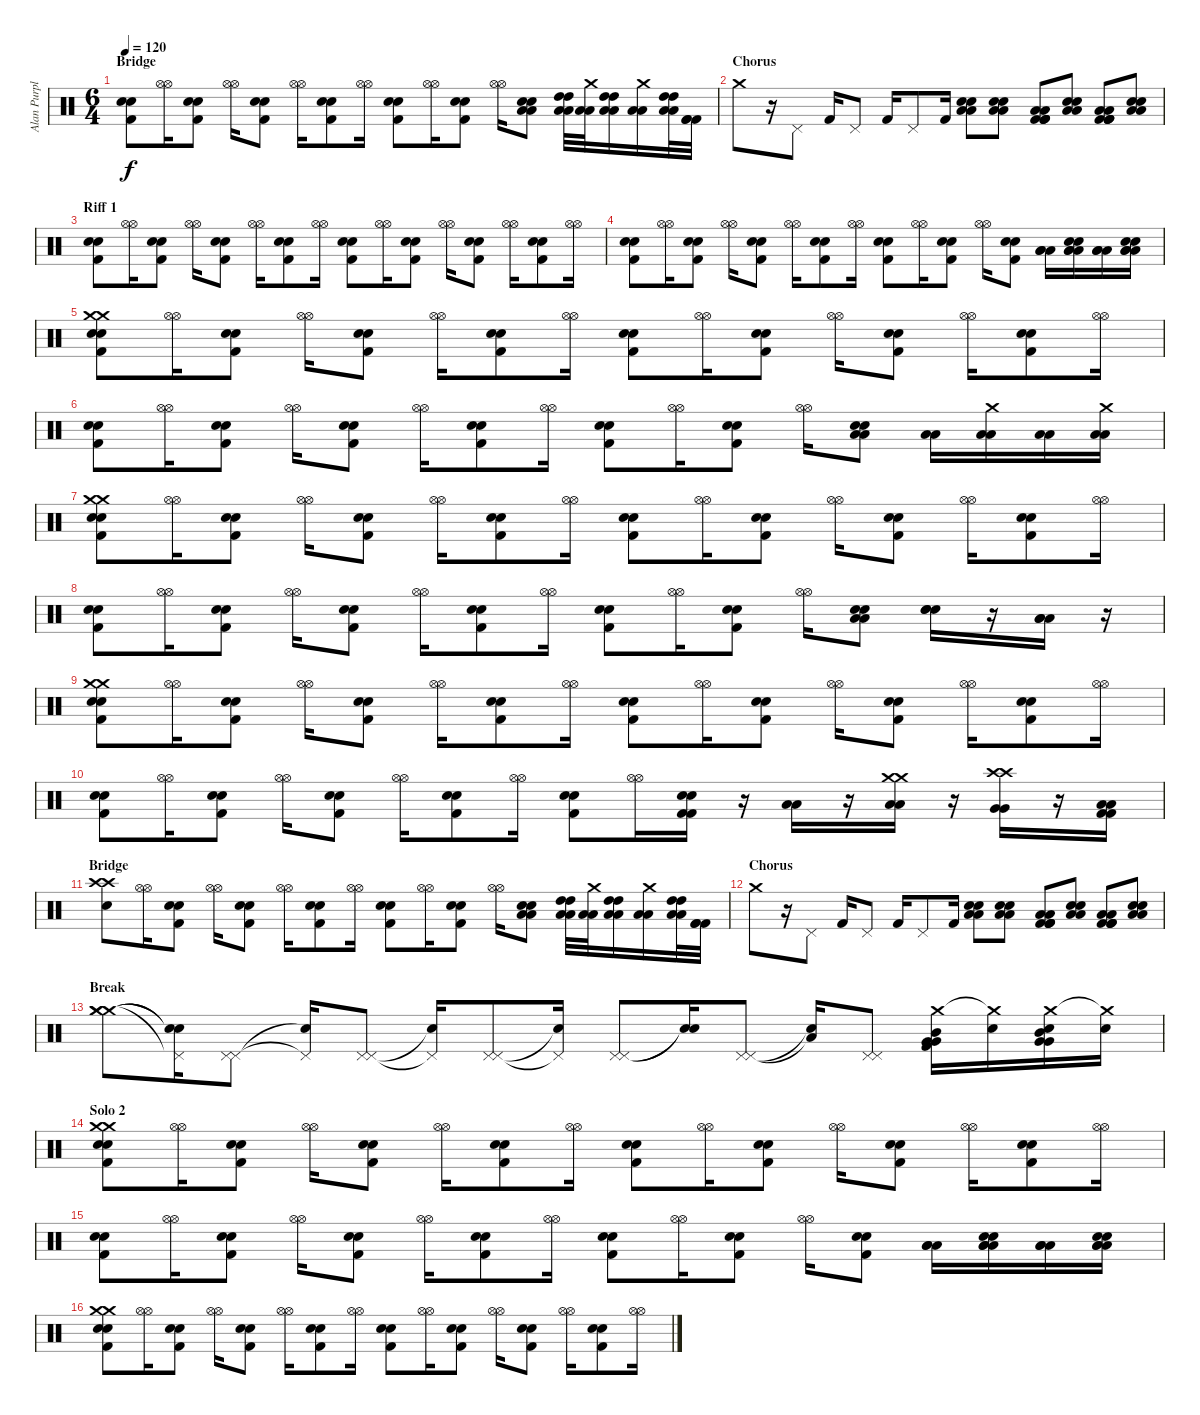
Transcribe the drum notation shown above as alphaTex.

\track ("Alan Purple" "Alan Purpl") {instrument percussion}
\staff {score}
\articulation defaults
\ts (6 4)
\section ("" "Bridge")
\tempo 120
\clef neutral
\ks c
("Electric Snare (hit)" "Kick (hit) 2" "Electric Snare (hit)").8{dy f} ("Hi-Hat (open)" "Hi-Hat (open)").16 ("Electric Snare (hit)" "Kick (hit) 2" "Electric Snare (hit)").8 ("Hi-Hat (open)" "Hi-Hat (open)").16 ("Electric Snare (hit)" "Kick (hit) 2" "Electric Snare (hit)").8 ("Hi-Hat (open)" "Hi-Hat (open)").16 ("Electric Snare (hit)" "Kick (hit) 2" "Electric Snare (hit)").8 ("Hi-Hat (open)" "Hi-Hat (open)").16 ("Electric Snare (hit)" "Kick (hit) 2" "Electric Snare (hit)").8 ("Hi-Hat (open)" "Hi-Hat (open)").16 ("Electric Snare (hit)" "Kick (hit) 2" "Electric Snare (hit)").8 ("Hi-Hat (open)" "Hi-Hat (open)").16 ("Electric Snare (hit)" "Low Tom (hit)" "Low Tom (hit)" "Electric Snare (hit)").8 ("High Tom (hit)" "Low Tom (hit)" "Low Tom (hit)" "High Tom (hit)").32 ("Crash medium (hit)" "Low Tom (hit)" "Low Tom (hit)").32 ("High Tom (hit)" "Low Tom (hit)" "Low Tom (hit)" "High Tom (hit)").16 ("Crash medium (hit)" "Low Tom (hit)" "Low Tom (hit)").16 ("High Tom (hit)" "Low Tom (hit)" "Low Tom (hit)" "High Tom (hit)").32 ("Kick (hit) 2" "Kick (hit) 2" "Kick (hit) 2").32 |
\section ("" "Chorus")
"Crash medium (hit)".8 r.16 "Pedal Hi-Hat (hit)".8 "Kick (hit) 2".16 "Pedal Hi-Hat (hit)".8 "Kick (hit) 2".16 "Pedal Hi-Hat (hit)".8 "Kick (hit) 2".16 ("Electric Snare (hit)" "Low Tom (hit)" "Low Tom (hit)" "Electric Snare (hit)").8 ("Electric Snare (hit)" "Low Tom (hit)" "Low Tom (hit)" "Electric Snare (hit)").8 ("Kick (hit) 2" "Kick (hit) 2" "Low Tom (hit)" "Low Tom (hit)" "Kick (hit) 2" "Kick (hit) 2").8 ("Electric Snare (hit)" "Low Tom (hit)" "Low Tom (hit)" "Electric Snare (hit)").8 ("Kick (hit) 2" "Kick (hit) 2" "Low Tom (hit)" "Low Tom (hit)" "Kick (hit) 2" "Kick (hit) 2").8 ("Electric Snare (hit)" "Low Tom (hit)" "Low Tom (hit)" "Electric Snare (hit)").8 |
\section ("" "Riff 1")
("Electric Snare (hit)" "Kick (hit) 2" "Electric Snare (hit)").8 ("Hi-Hat (open)" "Hi-Hat (open)").16 ("Electric Snare (hit)" "Kick (hit) 2" "Electric Snare (hit)").8 ("Hi-Hat (open)" "Hi-Hat (open)").16 ("Electric Snare (hit)" "Kick (hit) 2" "Electric Snare (hit)").8 ("Hi-Hat (open)" "Hi-Hat (open)").16 ("Electric Snare (hit)" "Kick (hit) 2" "Electric Snare (hit)").8 ("Hi-Hat (open)" "Hi-Hat (open)").16 ("Electric Snare (hit)" "Kick (hit) 2" "Electric Snare (hit)").8 ("Hi-Hat (open)" "Hi-Hat (open)").16 ("Electric Snare (hit)" "Kick (hit) 2" "Electric Snare (hit)").8 ("Hi-Hat (open)" "Hi-Hat (open)").16 ("Electric Snare (hit)" "Kick (hit) 2" "Electric Snare (hit)").8 ("Hi-Hat (open)" "Hi-Hat (open)").16 ("Electric Snare (hit)" "Kick (hit) 2" "Electric Snare (hit)").8 ("Hi-Hat (open)" "Hi-Hat (open)").16 |
("Electric Snare (hit)" "Kick (hit) 2" "Electric Snare (hit)").8 ("Hi-Hat (open)" "Hi-Hat (open)").16 ("Electric Snare (hit)" "Kick (hit) 2" "Electric Snare (hit)").8 ("Hi-Hat (open)" "Hi-Hat (open)").16 ("Electric Snare (hit)" "Kick (hit) 2" "Electric Snare (hit)").8 ("Hi-Hat (open)" "Hi-Hat (open)").16 ("Electric Snare (hit)" "Kick (hit) 2" "Electric Snare (hit)").8 ("Hi-Hat (open)" "Hi-Hat (open)").16 ("Electric Snare (hit)" "Kick (hit) 2" "Electric Snare (hit)").8 ("Hi-Hat (open)" "Hi-Hat (open)").16 ("Electric Snare (hit)" "Kick (hit) 2" "Electric Snare (hit)").8 ("Hi-Hat (open)" "Hi-Hat (open)").16 ("Electric Snare (hit)" "Kick (hit) 2" "Electric Snare (hit)").8 ("Low Tom (hit)" "Low Tom (hit)" "Low Tom (hit)").16 ("Low Tom (hit)" "Low Tom (hit)" "Low Tom (hit)" "Electric Snare (hit)" "Electric Snare (hit)").16 ("Low Tom (hit)" "Low Tom (hit)" "Low Tom (hit)").16 ("Low Tom (hit)" "Low Tom (hit)" "Low Tom (hit)" "Electric Snare (hit)" "Electric Snare (hit)").16 |
("Electric Snare (hit)" "Crash medium (hit)" "Crash medium (hit)" "Kick (hit) 2" "Electric Snare (hit)").8 ("Hi-Hat (open)" "Hi-Hat (open)").16 ("Electric Snare (hit)" "Kick (hit) 2" "Electric Snare (hit)").8 ("Hi-Hat (open)" "Hi-Hat (open)").16 ("Electric Snare (hit)" "Kick (hit) 2" "Electric Snare (hit)").8 ("Hi-Hat (open)" "Hi-Hat (open)").16 ("Electric Snare (hit)" "Kick (hit) 2" "Electric Snare (hit)").8 ("Hi-Hat (open)" "Hi-Hat (open)").16 ("Electric Snare (hit)" "Kick (hit) 2" "Electric Snare (hit)").8 ("Hi-Hat (open)" "Hi-Hat (open)").16 ("Electric Snare (hit)" "Kick (hit) 2" "Electric Snare (hit)").8 ("Hi-Hat (open)" "Hi-Hat (open)").16 ("Electric Snare (hit)" "Kick (hit) 2" "Electric Snare (hit)").8 ("Hi-Hat (open)" "Hi-Hat (open)").16 ("Electric Snare (hit)" "Kick (hit) 2" "Electric Snare (hit)").8 ("Hi-Hat (open)" "Hi-Hat (open)").16 |
("Electric Snare (hit)" "Kick (hit) 2" "Electric Snare (hit)").8 ("Hi-Hat (open)" "Hi-Hat (open)").16 ("Electric Snare (hit)" "Kick (hit) 2" "Electric Snare (hit)").8 ("Hi-Hat (open)" "Hi-Hat (open)").16 ("Electric Snare (hit)" "Kick (hit) 2" "Electric Snare (hit)").8 ("Hi-Hat (open)" "Hi-Hat (open)").16 ("Electric Snare (hit)" "Kick (hit) 2" "Electric Snare (hit)").8 ("Hi-Hat (open)" "Hi-Hat (open)").16 ("Electric Snare (hit)" "Kick (hit) 2" "Electric Snare (hit)").8 ("Hi-Hat (open)" "Hi-Hat (open)").16 ("Electric Snare (hit)" "Kick (hit) 2" "Electric Snare (hit)").8 ("Hi-Hat (open)" "Hi-Hat (open)").16 ("Electric Snare (hit)" "Low Tom (hit)" "Low Tom (hit)" "Electric Snare (hit)").8 ("Low Tom (hit)" "Low Tom (hit)").16 ("Crash medium (hit)" "Low Tom (hit)" "Low Tom (hit)").16 ("Low Tom (hit)" "Low Tom (hit)").16 ("Crash medium (hit)" "Low Tom (hit)" "Low Tom (hit)").16 |
("Electric Snare (hit)" "Crash medium (hit)" "Crash medium (hit)" "Kick (hit) 2" "Electric Snare (hit)").8 ("Hi-Hat (open)" "Hi-Hat (open)").16 ("Electric Snare (hit)" "Kick (hit) 2" "Electric Snare (hit)").8 ("Hi-Hat (open)" "Hi-Hat (open)").16 ("Electric Snare (hit)" "Kick (hit) 2" "Electric Snare (hit)").8 ("Hi-Hat (open)" "Hi-Hat (open)").16 ("Electric Snare (hit)" "Kick (hit) 2" "Electric Snare (hit)").8 ("Hi-Hat (open)" "Hi-Hat (open)").16 ("Electric Snare (hit)" "Kick (hit) 2" "Electric Snare (hit)").8 ("Hi-Hat (open)" "Hi-Hat (open)").16 ("Electric Snare (hit)" "Kick (hit) 2" "Electric Snare (hit)").8 ("Hi-Hat (open)" "Hi-Hat (open)").16 ("Electric Snare (hit)" "Kick (hit) 2" "Electric Snare (hit)").8 ("Hi-Hat (open)" "Hi-Hat (open)").16 ("Electric Snare (hit)" "Kick (hit) 2" "Electric Snare (hit)").8 ("Hi-Hat (open)" "Hi-Hat (open)").16 |
("Electric Snare (hit)" "Kick (hit) 2" "Electric Snare (hit)").8 ("Hi-Hat (open)" "Hi-Hat (open)").16 ("Electric Snare (hit)" "Kick (hit) 2" "Electric Snare (hit)").8 ("Hi-Hat (open)" "Hi-Hat (open)").16 ("Electric Snare (hit)" "Kick (hit) 2" "Electric Snare (hit)").8 ("Hi-Hat (open)" "Hi-Hat (open)").16 ("Electric Snare (hit)" "Kick (hit) 2" "Electric Snare (hit)").8 ("Hi-Hat (open)" "Hi-Hat (open)").16 ("Electric Snare (hit)" "Kick (hit) 2" "Electric Snare (hit)").8 ("Hi-Hat (open)" "Hi-Hat (open)").16 ("Electric Snare (hit)" "Kick (hit) 2" "Electric Snare (hit)").8 ("Hi-Hat (open)" "Hi-Hat (open)").16 ("Electric Snare (hit)" "Low Tom (hit)" "Low Tom (hit)" "Electric Snare (hit)").8 ("Electric Snare (hit)" "Electric Snare (hit)" "Electric Snare (hit)").16 r.16 ("Low Tom (hit)" "Low Tom (hit)" "Low Tom (hit)").16 r.16 |
("Electric Snare (hit)" "Crash medium (hit)" "Crash medium (hit)" "Kick (hit) 2" "Electric Snare (hit)").8 ("Hi-Hat (open)" "Hi-Hat (open)").16 ("Electric Snare (hit)" "Kick (hit) 2" "Electric Snare (hit)").8 ("Hi-Hat (open)" "Hi-Hat (open)").16 ("Electric Snare (hit)" "Kick (hit) 2" "Electric Snare (hit)").8 ("Hi-Hat (open)" "Hi-Hat (open)").16 ("Electric Snare (hit)" "Kick (hit) 2" "Electric Snare (hit)").8 ("Hi-Hat (open)" "Hi-Hat (open)").16 ("Electric Snare (hit)" "Kick (hit) 2" "Electric Snare (hit)").8 ("Hi-Hat (open)" "Hi-Hat (open)").16 ("Electric Snare (hit)" "Kick (hit) 2" "Electric Snare (hit)").8 ("Hi-Hat (open)" "Hi-Hat (open)").16 ("Electric Snare (hit)" "Kick (hit) 2" "Electric Snare (hit)").8 ("Hi-Hat (open)" "Hi-Hat (open)").16 ("Electric Snare (hit)" "Kick (hit) 2" "Electric Snare (hit)").8 ("Hi-Hat (open)" "Hi-Hat (open)").16 |
("Electric Snare (hit)" "Kick (hit) 2" "Electric Snare (hit)").8 ("Hi-Hat (open)" "Hi-Hat (open)").16 ("Electric Snare (hit)" "Kick (hit) 2" "Electric Snare (hit)").8 ("Hi-Hat (open)" "Hi-Hat (open)").16 ("Electric Snare (hit)" "Kick (hit) 2" "Electric Snare (hit)").8 ("Hi-Hat (open)" "Hi-Hat (open)").16 ("Electric Snare (hit)" "Kick (hit) 2" "Electric Snare (hit)").8 ("Hi-Hat (open)" "Hi-Hat (open)").16 ("Electric Snare (hit)" "Kick (hit) 2" "Electric Snare (hit)").8 ("Hi-Hat (open)" "Hi-Hat (open)").16 ("Electric Snare (hit)" "Kick (hit) 2" "Kick (hit) 2" "Electric Snare (hit)").16 r.16 ("Low Tom (hit)" "Low Tom (hit)").16 r.16 ("Crash medium (hit)" "Crash medium (hit)" "Low Tom (hit)" "Low Tom (hit)").16 r.16 ("Crash high (hit)" "Crash high (hit)" "Very Low Tom (hit)" "Very Low Tom (hit)").16 r.16 ("Kick (hit) 2" "Kick (hit) 2" "Low Floor Tom (hit)" "Low Floor Tom (hit)").16 |
\section ("" "Bridge")
("Crash high (hit)" "Crash high (hit)" "Electric Snare (hit)").8 ("Hi-Hat (open)" "Hi-Hat (open)").16 ("Electric Snare (hit)" "Kick (hit) 2" "Electric Snare (hit)").8 ("Hi-Hat (open)" "Hi-Hat (open)").16 ("Electric Snare (hit)" "Kick (hit) 2" "Electric Snare (hit)").8 ("Hi-Hat (open)" "Hi-Hat (open)").16 ("Electric Snare (hit)" "Kick (hit) 2" "Electric Snare (hit)").8 ("Hi-Hat (open)" "Hi-Hat (open)").16 ("Electric Snare (hit)" "Kick (hit) 2" "Electric Snare (hit)").8 ("Hi-Hat (open)" "Hi-Hat (open)").16 ("Electric Snare (hit)" "Kick (hit) 2" "Electric Snare (hit)").8 ("Hi-Hat (open)" "Hi-Hat (open)").16 ("Electric Snare (hit)" "Low Tom (hit)" "Low Tom (hit)" "Electric Snare (hit)").8 ("High Tom (hit)" "Low Tom (hit)" "Low Tom (hit)" "High Tom (hit)").32 ("Crash medium (hit)" "Low Tom (hit)" "Low Tom (hit)").32 ("High Tom (hit)" "Low Tom (hit)" "Low Tom (hit)" "High Tom (hit)").16 ("Crash medium (hit)" "Low Tom (hit)" "Low Tom (hit)").16 ("High Tom (hit)" "Low Tom (hit)" "Low Tom (hit)" "High Tom (hit)").32 ("Kick (hit) 2" "Kick (hit) 2" "Kick (hit) 2").32 |
\section ("" "Chorus")
"Crash medium (hit)".8 r.16 "Pedal Hi-Hat (hit)".8 "Kick (hit) 2".16 "Pedal Hi-Hat (hit)".8 "Kick (hit) 2".16 "Pedal Hi-Hat (hit)".8 "Kick (hit) 2".16 ("Electric Snare (hit)" "Low Tom (hit)" "Low Tom (hit)" "Electric Snare (hit)").8 ("Electric Snare (hit)" "Low Tom (hit)" "Low Tom (hit)" "Electric Snare (hit)").8 ("Kick (hit) 2" "Kick (hit) 2" "Low Tom (hit)" "Low Tom (hit)" "Kick (hit) 2" "Kick (hit) 2").8 ("Electric Snare (hit)" "Low Tom (hit)" "Low Tom (hit)" "Electric Snare (hit)").8 ("Kick (hit) 2" "Kick (hit) 2" "Low Tom (hit)" "Low Tom (hit)" "Kick (hit) 2" "Kick (hit) 2").8 ("Electric Snare (hit)" "Low Tom (hit)" "Low Tom (hit)" "Electric Snare (hit)").8 |
\section ("" "Break")
("Crash medium (hit)" "Crash medium (hit)" "Crash medium (hit)").8 ("Electric Snare (hit)"{t} "Snare (hit)"{t} "Pedal Hi-Hat (hit)"{t}).16 ("Pedal Hi-Hat (hit)" "Pedal Hi-Hat (hit)").8 ("Pedal Hi-Hat (hit)"{t} "Snare (hit)"{t}).16 ("Pedal Hi-Hat (hit)" "Pedal Hi-Hat (hit)").8 ("Pedal Hi-Hat (hit)"{t} "Snare (hit)"{t}).16 ("Pedal Hi-Hat (hit)" "Pedal Hi-Hat (hit)").8 ("Pedal Hi-Hat (hit)"{t} "Snare (hit)"{t}).16 ("Pedal Hi-Hat (hit)" "Pedal Hi-Hat (hit)").8 ("Snare (hit)"{t} "Snare (hit)"{t}).16 ("Pedal Hi-Hat (hit)" "Pedal Hi-Hat (hit)").8 ("Low Tom (hit)"{t} "Snare (hit)"{t}).16 ("Pedal Hi-Hat (hit)" "Pedal Hi-Hat (hit)").8 ("Crash medium (hit)" "Very Low Tom (hit)" "Very Low Tom (hit)" "Mid Tom (hit)" "Kick (hit) 2").16 ("Crash medium (hit)"{t} "Electric Snare (hit)").16 ("Crash medium (hit)" "Very Low Tom (hit)" "Very Low Tom (hit)" "Mid Tom (hit)" "Electric Snare (hit)").16 ("Crash medium (hit)"{t} "Electric Snare (hit)").16 |
\section ("" "Solo 2")
("Electric Snare (hit)" "Crash medium (hit)" "Crash medium (hit)" "Kick (hit) 2" "Electric Snare (hit)").8 ("Hi-Hat (open)" "Hi-Hat (open)").16 ("Electric Snare (hit)" "Kick (hit) 2" "Electric Snare (hit)").8 ("Hi-Hat (open)" "Hi-Hat (open)").16 ("Electric Snare (hit)" "Kick (hit) 2" "Electric Snare (hit)").8 ("Hi-Hat (open)" "Hi-Hat (open)").16 ("Electric Snare (hit)" "Kick (hit) 2" "Electric Snare (hit)").8 ("Hi-Hat (open)" "Hi-Hat (open)").16 ("Electric Snare (hit)" "Kick (hit) 2" "Electric Snare (hit)").8 ("Hi-Hat (open)" "Hi-Hat (open)").16 ("Electric Snare (hit)" "Kick (hit) 2" "Electric Snare (hit)").8 ("Hi-Hat (open)" "Hi-Hat (open)").16 ("Electric Snare (hit)" "Kick (hit) 2" "Electric Snare (hit)").8 ("Hi-Hat (open)" "Hi-Hat (open)").16 ("Electric Snare (hit)" "Kick (hit) 2" "Electric Snare (hit)").8 ("Hi-Hat (open)" "Hi-Hat (open)").16 |
("Electric Snare (hit)" "Kick (hit) 2" "Electric Snare (hit)").8 ("Hi-Hat (open)" "Hi-Hat (open)").16 ("Electric Snare (hit)" "Kick (hit) 2" "Electric Snare (hit)").8 ("Hi-Hat (open)" "Hi-Hat (open)").16 ("Electric Snare (hit)" "Kick (hit) 2" "Electric Snare (hit)").8 ("Hi-Hat (open)" "Hi-Hat (open)").16 ("Electric Snare (hit)" "Kick (hit) 2" "Electric Snare (hit)").8 ("Hi-Hat (open)" "Hi-Hat (open)").16 ("Electric Snare (hit)" "Kick (hit) 2" "Electric Snare (hit)").8 ("Hi-Hat (open)" "Hi-Hat (open)").16 ("Electric Snare (hit)" "Kick (hit) 2" "Electric Snare (hit)").8 ("Hi-Hat (open)" "Hi-Hat (open)").16 ("Electric Snare (hit)" "Kick (hit) 2" "Electric Snare (hit)").8 ("Low Tom (hit)" "Low Tom (hit)" "Low Tom (hit)").16 ("Low Tom (hit)" "Low Tom (hit)" "Low Tom (hit)" "Electric Snare (hit)" "Electric Snare (hit)").16 ("Low Tom (hit)" "Low Tom (hit)" "Low Tom (hit)").16 ("Low Tom (hit)" "Low Tom (hit)" "Low Tom (hit)" "Electric Snare (hit)" "Electric Snare (hit)").16 |
("Electric Snare (hit)" "Crash medium (hit)" "Crash medium (hit)" "Kick (hit) 2" "Electric Snare (hit)").8 ("Hi-Hat (open)" "Hi-Hat (open)").16 ("Electric Snare (hit)" "Kick (hit) 2" "Electric Snare (hit)").8 ("Hi-Hat (open)" "Hi-Hat (open)").16 ("Electric Snare (hit)" "Kick (hit) 2" "Electric Snare (hit)").8 ("Hi-Hat (open)" "Hi-Hat (open)").16 ("Electric Snare (hit)" "Kick (hit) 2" "Electric Snare (hit)").8 ("Hi-Hat (open)" "Hi-Hat (open)").16 ("Electric Snare (hit)" "Kick (hit) 2" "Electric Snare (hit)").8 ("Hi-Hat (open)" "Hi-Hat (open)").16 ("Electric Snare (hit)" "Kick (hit) 2" "Electric Snare (hit)").8 ("Hi-Hat (open)" "Hi-Hat (open)").16 ("Electric Snare (hit)" "Kick (hit) 2" "Electric Snare (hit)").8 ("Hi-Hat (open)" "Hi-Hat (open)").16 ("Electric Snare (hit)" "Kick (hit) 2" "Electric Snare (hit)").8 ("Hi-Hat (open)" "Hi-Hat (open)").16
